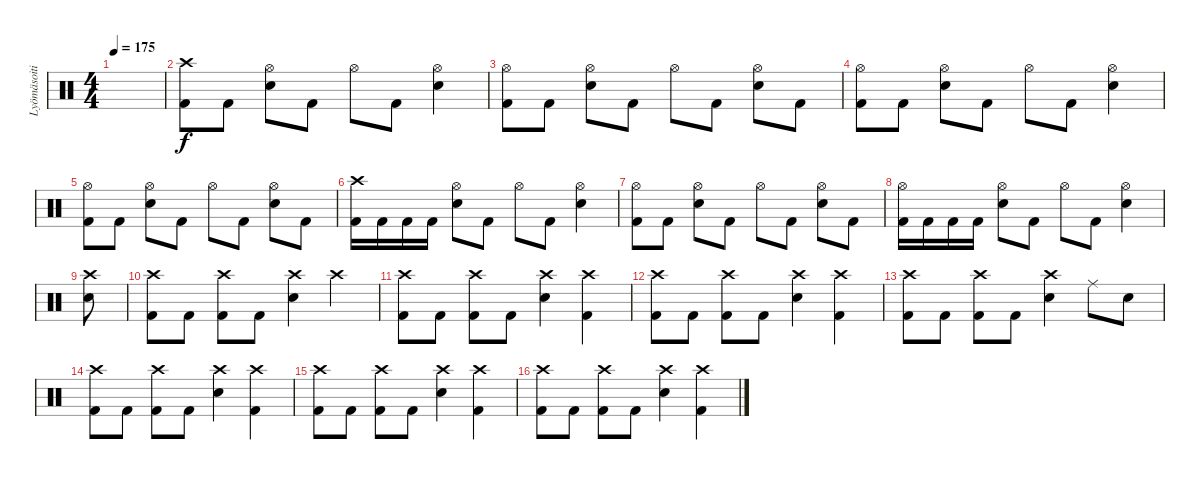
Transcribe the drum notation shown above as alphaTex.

\track ("Lyömäsoitin" "Lyömäsoiti") {instrument percussion}
\staff {score}
\articulation defaults
\ts (4 4)
\tempo 175
\clef neutral
\ks c
|
("Kick (hit) 2" "Crash high (hit)").8 "Kick (hit) 2".8 ("Electric Snare (hit)" "Hi-Hat (open)").8 "Kick (hit) 2".8 "Hi-Hat (open)".8 "Kick (hit) 2".8 ("Electric Snare (hit)" "Hi-Hat (open)").4 |
("Kick (hit) 2" "Hi-Hat (open)").8 "Kick (hit) 2".8 ("Electric Snare (hit)" "Hi-Hat (open)").8 "Kick (hit) 2".8 "Hi-Hat (open)".8 "Kick (hit) 2".8 ("Electric Snare (hit)" "Hi-Hat (open)").8 "Kick (hit) 2".8 |
("Kick (hit) 2" "Hi-Hat (open)").8 "Kick (hit) 2".8 ("Electric Snare (hit)" "Hi-Hat (open)").8 "Kick (hit) 2".8 "Hi-Hat (open)".8 "Kick (hit) 2".8 ("Electric Snare (hit)" "Hi-Hat (open)").4 |
("Kick (hit) 2" "Hi-Hat (open)").8 "Kick (hit) 2".8 ("Electric Snare (hit)" "Hi-Hat (open)").8 "Kick (hit) 2".8 "Hi-Hat (open)".8 "Kick (hit) 2".8 ("Electric Snare (hit)" "Hi-Hat (open)").8 "Kick (hit) 2".8 |
("Kick (hit) 2" "Crash high (hit)").16 "Kick (hit) 2".16 "Kick (hit) 2".16 "Kick (hit) 2".16 ("Electric Snare (hit)" "Hi-Hat (open)").8 "Kick (hit) 2".8 "Hi-Hat (open)".8 "Kick (hit) 2".8 ("Electric Snare (hit)" "Hi-Hat (open)").4 |
("Kick (hit) 2" "Hi-Hat (open)").8 "Kick (hit) 2".8 ("Electric Snare (hit)" "Hi-Hat (open)").8 "Kick (hit) 2".8 "Hi-Hat (open)".8 "Kick (hit) 2".8 ("Electric Snare (hit)" "Hi-Hat (open)").8 "Kick (hit) 2".8 |
("Kick (hit) 2" "Hi-Hat (open)").16 "Kick (hit) 2".16 "Kick (hit) 2".16 "Kick (hit) 2".16 ("Electric Snare (hit)" "Hi-Hat (open)").8 "Kick (hit) 2".8 "Hi-Hat (open)".8 "Kick (hit) 2".8 ("Electric Snare (hit)" "Hi-Hat (open)").4 |
("Electric Snare (hit)" "Crash high (hit)").8 |
("Kick (hit) 2" "Crash high (hit)").8 "Kick (hit) 2".8 ("Kick (hit) 2" "Crash high (hit)").8 "Kick (hit) 2".8 ("Electric Snare (hit)" "Crash high (hit)").4 "Crash high (hit)".4 |
("Kick (hit) 2" "Crash high (hit)").8 "Kick (hit) 2".8 ("Kick (hit) 2" "Crash high (hit)").8 "Kick (hit) 2".8 ("Electric Snare (hit)" "Crash high (hit)").4 ("Kick (hit) 2" "Crash high (hit)").4 |
("Kick (hit) 2" "Crash high (hit)").8 "Kick (hit) 2".8 ("Kick (hit) 2" "Crash high (hit)").8 "Kick (hit) 2".8 ("Electric Snare (hit)" "Crash high (hit)").4 ("Kick (hit) 2" "Crash high (hit)").4 |
("Kick (hit) 2" "Crash high (hit)").8 "Kick (hit) 2".8 ("Kick (hit) 2" "Crash high (hit)").8 "Kick (hit) 2".8 ("Electric Snare (hit)" "Crash high (hit)").4 "Ride (middle)".8 "Electric Snare (hit)".8 |
("Kick (hit) 2" "Crash high (hit)").8 "Kick (hit) 2".8 ("Kick (hit) 2" "Crash high (hit)").8 "Kick (hit) 2".8 ("Electric Snare (hit)" "Crash high (hit)").4 ("Kick (hit) 2" "Crash high (hit)").4 |
("Kick (hit) 2" "Crash high (hit)").8 "Kick (hit) 2".8 ("Kick (hit) 2" "Crash high (hit)").8 "Kick (hit) 2".8 ("Electric Snare (hit)" "Crash high (hit)").4 ("Kick (hit) 2" "Crash high (hit)").4 |
("Kick (hit) 2" "Crash high (hit)").8 "Kick (hit) 2".8 ("Kick (hit) 2" "Crash high (hit)").8 "Kick (hit) 2".8 ("Electric Snare (hit)" "Crash high (hit)").4 ("Kick (hit) 2" "Crash high (hit)").4
